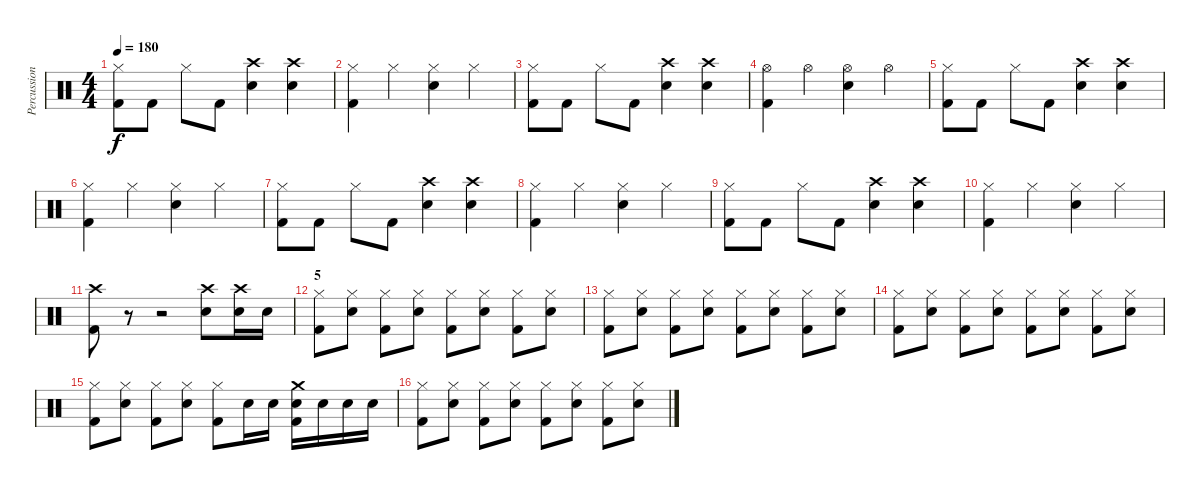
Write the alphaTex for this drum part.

\track ("Percussions" "Percussion") {instrument percussion}
\staff {score}
\articulation defaults
\ts (4 4)
\tempo 180
\clef neutral
\ks c
("Hi-Hat (closed)" "Kick (hit) 2").8{dy f} "Kick (hit) 2".8 "Hi-Hat (closed)".8 "Kick (hit) 2".8 ("Crash high (hit)" "Snare (hit) 2").4 ("Crash high (hit)" "Snare (hit) 2").4 |
("Hi-Hat (closed)" "Kick (hit) 2").4 "Hi-Hat (closed)".4 ("Hi-Hat (closed)" "Snare (hit) 2").4 "Hi-Hat (closed)".4 |
("Hi-Hat (closed)" "Kick (hit) 2").8 "Kick (hit) 2".8 "Hi-Hat (closed)".8 "Kick (hit) 2".8 ("Crash high (hit)" "Snare (hit) 2").4 ("Crash high (hit)" "Snare (hit) 2").4 |
("Hi-Hat (open)" "Kick (hit) 2").4 "Hi-Hat (open)".4 ("Hi-Hat (open)" "Snare (hit) 2").4 "Hi-Hat (open)".4 |
("Hi-Hat (closed)" "Kick (hit) 2").8 "Kick (hit) 2".8 "Hi-Hat (closed)".8 "Kick (hit) 2".8 ("Crash high (hit)" "Snare (hit) 2").4 ("Crash high (hit)" "Snare (hit) 2").4 |
("Hi-Hat (closed)" "Kick (hit) 2").4 "Hi-Hat (closed)".4 ("Hi-Hat (closed)" "Snare (hit) 2").4 "Hi-Hat (closed)".4 |
("Hi-Hat (closed)" "Kick (hit) 2").8 "Kick (hit) 2".8 "Hi-Hat (closed)".8 "Kick (hit) 2".8 ("Crash high (hit)" "Snare (hit) 2").4 ("Crash high (hit)" "Snare (hit) 2").4 |
("Hi-Hat (closed)" "Kick (hit) 2").4 "Hi-Hat (closed)".4 ("Hi-Hat (closed)" "Snare (hit) 2").4 "Hi-Hat (closed)".4 |
("Hi-Hat (closed)" "Kick (hit) 2").8 "Kick (hit) 2".8 "Hi-Hat (closed)".8 "Kick (hit) 2".8 ("Crash high (hit)" "Snare (hit) 2").4 ("Crash high (hit)" "Snare (hit) 2").4 |
("Hi-Hat (closed)" "Kick (hit) 2").4 "Hi-Hat (closed)".4 ("Hi-Hat (closed)" "Snare (hit) 2").4 "Hi-Hat (closed)".4 |
("Crash high (hit)" "Kick (hit) 2").8 r.8 r.2 ("Crash high (hit)" "Snare (hit) 2").8 ("Crash high (hit)" "Snare (hit) 2").16 "Snare (hit) 2".16 |
\section ("" "5")
("Hi-Hat (closed)" "Kick (hit) 2").8 ("Hi-Hat (closed)" "Snare (hit) 2").8 ("Hi-Hat (closed)" "Kick (hit) 2").8 ("Hi-Hat (closed)" "Snare (hit) 2").8 ("Hi-Hat (closed)" "Kick (hit) 2").8 ("Hi-Hat (closed)" "Snare (hit) 2").8 ("Hi-Hat (closed)" "Kick (hit) 2").8 ("Hi-Hat (closed)" "Snare (hit) 2").8 |
("Hi-Hat (closed)" "Kick (hit) 2").8 ("Hi-Hat (closed)" "Snare (hit) 2").8 ("Hi-Hat (closed)" "Kick (hit) 2").8 ("Hi-Hat (closed)" "Snare (hit) 2").8 ("Hi-Hat (closed)" "Kick (hit) 2").8 ("Hi-Hat (closed)" "Snare (hit) 2").8 ("Hi-Hat (closed)" "Kick (hit) 2").8 ("Hi-Hat (closed)" "Snare (hit) 2").8 |
("Hi-Hat (closed)" "Kick (hit) 2").8 ("Hi-Hat (closed)" "Snare (hit) 2").8 ("Hi-Hat (closed)" "Kick (hit) 2").8 ("Hi-Hat (closed)" "Snare (hit) 2").8 ("Hi-Hat (closed)" "Kick (hit) 2").8 ("Hi-Hat (closed)" "Snare (hit) 2").8 ("Hi-Hat (closed)" "Kick (hit) 2").8 ("Hi-Hat (closed)" "Snare (hit) 2").8 |
("Hi-Hat (closed)" "Kick (hit) 2").8 ("Hi-Hat (closed)" "Snare (hit) 2").8 ("Hi-Hat (closed)" "Kick (hit) 2").8 ("Hi-Hat (closed)" "Snare (hit) 2").8 ("Hi-Hat (closed)" "Kick (hit) 2").8 "Snare (hit) 2".16 "Snare (hit) 2".16 ("Crash medium (hit)" "Snare (hit) 2" "Kick (hit) 2").16 "Snare (hit) 2".16 "Snare (hit) 2".16 "Snare (hit) 2".16 |
("Hi-Hat (closed)" "Kick (hit) 2").8 ("Hi-Hat (closed)" "Snare (hit) 2").8 ("Hi-Hat (closed)" "Kick (hit) 2").8 ("Hi-Hat (closed)" "Snare (hit) 2").8 ("Hi-Hat (closed)" "Kick (hit) 2").8 ("Hi-Hat (closed)" "Snare (hit) 2").8 ("Hi-Hat (closed)" "Kick (hit) 2").8 ("Hi-Hat (closed)" "Snare (hit) 2").8
